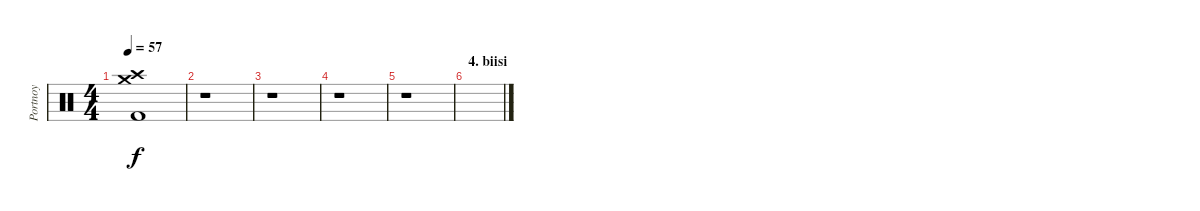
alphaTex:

\track ("Portnoy" "Portnoy") {instrument percussion}
\staff {score}
\articulation defaults
\ts (4 4)
\tempo 57
\clef neutral
\ks c
("Kick (hit) 2" "Crash high (hit)" "Crash medium (hit)").1{dy f} |
r.1 |
r.1 |
r.1 |
r.1 |
\section ("" "4. biisi")
